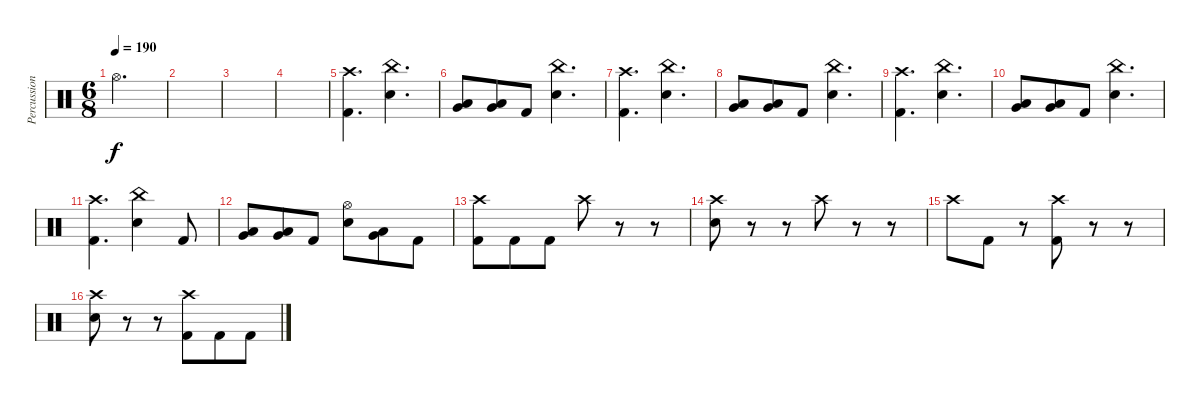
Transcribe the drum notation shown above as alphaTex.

\track ("Percussion" "Percussion") {instrument percussion}
\staff {score}
\articulation defaults
\ts (6 8)
\tempo 190
\clef neutral
\ks c "Hi-Hat (open)".2{d dy f}
|
|
|
|
("Crash high (hit)" "Kick (hit) 2").4{d} ("China (hit)" "Electric Snare (hit)").4{d} |
("Low Tom (hit)" "Very Low Tom (hit)").8 ("Very Low Tom (hit)" "Low Floor Tom (hit)").8 "Kick (hit) 2".8 ("China (hit)" "Electric Snare (hit)").4{d} |
("Crash high (hit)" "Kick (hit) 2").4{d} ("China (hit)" "Electric Snare (hit)").4{d} |
("Low Tom (hit)" "Very Low Tom (hit)").8 ("Very Low Tom (hit)" "Low Floor Tom (hit)").8 "Kick (hit) 2".8 ("China (hit)" "Electric Snare (hit)").4{d} |
("Crash high (hit)" "Kick (hit) 2").4{d} ("China (hit)" "Electric Snare (hit)").4{d} |
("Low Tom (hit)" "Very Low Tom (hit)").8 ("Very Low Tom (hit)" "Low Floor Tom (hit)").8 "Kick (hit) 2".8 ("China (hit)" "Electric Snare (hit)").4{d} |
("Crash high (hit)" "Kick (hit) 2").4{d} ("China (hit)" "Electric Snare (hit)").4 "Kick (hit) 2".8 |
("Low Tom (hit)" "Very Low Tom (hit)").8 ("Very Low Tom (hit)" "Low Floor Tom (hit)").8 "Kick (hit) 2".8 ("Hi-Hat (open)" "Electric Snare (hit)").8 ("Very Low Tom (hit)" "Low Floor Tom (hit)").8 "Kick (hit) 2".8 |
("Crash high (hit)" "Kick (hit) 2").8 "Kick (hit) 2".8 "Kick (hit) 2".8 "Crash high (hit)".8 r.8 r.8 |
("Crash high (hit)" "Electric Snare (hit)").8 r.8 r.8 "Crash high (hit)".8 r.8 r.8 |
"Crash high (hit)".8 "Kick (hit) 2".8 r.8 ("Crash high (hit)" "Kick (hit) 2").8 r.8 r.8 |
("Crash high (hit)" "Electric Snare (hit)").8 r.8 r.8 ("Crash high (hit)" "Kick (hit) 2").8 "Kick (hit) 2".8 "Kick (hit) 2".8
